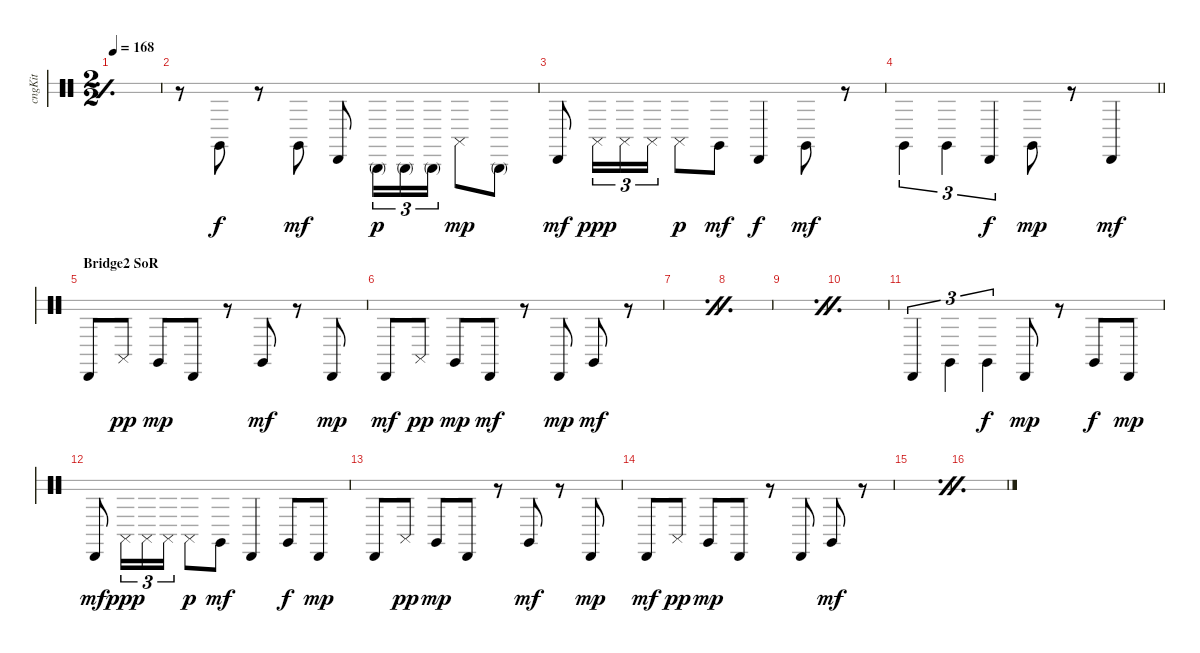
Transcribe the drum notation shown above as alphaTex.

\bracketExtendMode groupsimilarinstruments
\multiTrackTrackNamePolicy hidden
\otherSystemsTrackNameOrientation horizontal
\track ("Congas" "cngKit") {instrument percussion}
\staff {score 2}
\articulation defaults
\ts (2 2)
\tempo 168
\clef neutral
\simile simple
\ks c
|
r.8{beam Down} "Conga high (hit)".8{beam Down} r.8{beam Down} "Conga high (hit)".8{dy mf beam Down} "Conga low (hit)".8{beam Up} "Conga high (mute)".16{tu (3 2) dy p beam Down} "Conga high (mute)".16{tu (3 2) beam Down} "Conga high (mute)".16{tu (3 2) beam Down} "Conga high (slap)".8{dy mp beam Down} "Conga high (mute)".8{beam Down} |
"Conga low (hit)".8{dy mf beam Up} "Conga high (slap)".16{tu (3 2) dy ppp beam Down} "Conga high (slap)".16{tu (3 2) beam Down} "Conga high (slap)".16{tu (3 2) beam Down} "Conga high (slap)".8{dy p beam Down} "Conga high (hit)".8{dy mf beam Down} "Conga low (hit)".4{dy f beam Up} "Conga high (hit)".8{dy mf beam Down} r.8{beam Down} |
\barLineRight lightlight "Conga high (hit)".4{tu (3 2) beam Down} "Conga high (hit)".4{tu (3 2) beam Down} "Conga low (hit)".4{tu (3 2) dy f beam Up} "Conga high (hit)".8{dy mp beam Down}
r.8{beam Down} "Conga low (hit)".4{dy mf beam Up} |
\section ("" "Bridge2 SoR")
"Conga low (hit)".8{beam Up} "Conga high (slap)".8{dy pp beam Up} "Conga high (hit)".8{dy mp beam Up} "Conga low (hit)".8{beam Up} r.8{beam Up} "Conga high (hit)".8{dy mf beam Up} r.8{beam Up} "Conga low (hit)".8{dy mp beam Up} |
"Conga low (hit)".8{dy mf beam Up} "Conga high (slap)".8{dy pp beam Up} "Conga high (hit)".8{dy mp beam Up} "Conga low (hit)".8{dy mf beam Up} r.8{beam Up} "Conga low (hit)".8{dy mp beam Up} "Conga high (hit)".8{dy mf beam Up} r.8{beam Up} |
\simile firstofdouble
|
\simile secondofdouble
|
\simile firstofdouble
|
\simile secondofdouble
|
\simile none "Conga low (hit)".4{tu (3 2) beam Up} "Conga high (hit)".4{tu (3 2) beam Down} "Conga high (hit)".4{tu (3 2) dy f beam Down} "Conga low (hit)".8{dy mp beam Up}
r.8{beam Up} "Conga high (hit)".8{dy f beam Up} "Conga low (hit)".8{dy mp beam Up} |
"Conga low (hit)".8{dy mf beam Up} "Conga high (slap)".16{tu (3 2) dy ppp beam Down} "Conga high (slap)".16{tu (3 2) beam Down} "Conga high (slap)".16{tu (3 2) beam Down} "Conga high (slap)".8{dy p beam Down} "Conga high (hit)".8{dy mf beam Down} "Conga low (hit)".4{beam Up} "Conga high (hit)".8{dy f beam Up} "Conga low (hit)".8{dy mp beam Up} |
"Conga low (hit)".8{beam Up} "Conga high (slap)".8{dy pp beam Up} "Conga high (hit)".8{dy mp beam Up} "Conga low (hit)".8{beam Up} r.8{beam Up} "Conga high (hit)".8{dy mf beam Up} r.8{beam Up} "Conga low (hit)".8{dy mp beam Up} |
"Conga low (hit)".8{dy mf beam Up} "Conga high (slap)".8{dy pp beam Up} "Conga high (hit)".8{dy mp beam Up} "Conga low (hit)".8{beam Up} r.8{beam Up} "Conga low (hit)".8{beam Up} "Conga high (hit)".8{dy mf beam Up} r.8{beam Up} |
\simile firstofdouble
|
\simile secondofdouble
